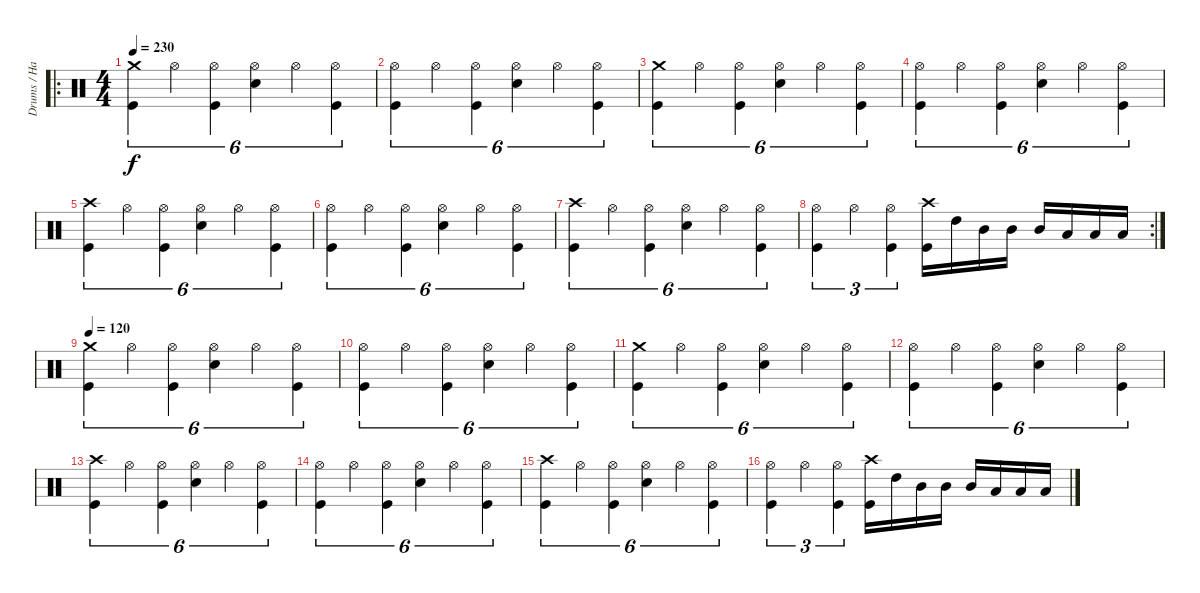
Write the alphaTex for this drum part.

\track ("Drums / Hammer of God" "Drums / Ha") {instrument percussion}
\staff {score}
\articulation defaults
\ro
\ts (4 4)
\tempo 230
\clef neutral
\ks c
("Kick (hit)" "Crash medium (hit)").4{tu (6 4) dy f} "Hi-Hat (open)".4{tu (6 4)} ("Kick (hit)" "Hi-Hat (open)").4{tu (6 4)} ("Snare (hit) 2" "Hi-Hat (open)").4{tu (6 4)} "Hi-Hat (open)".4{tu (6 4)} ("Kick (hit)" "Hi-Hat (open)").4{tu (6 4)} |
("Kick (hit)" "Hi-Hat (open)").4{tu (6 4)} "Hi-Hat (open)".4{tu (6 4)} ("Kick (hit)" "Hi-Hat (open)").4{tu (6 4)} ("Snare (hit) 2" "Hi-Hat (open)").4{tu (6 4)} "Hi-Hat (open)".4{tu (6 4)} ("Kick (hit)" "Hi-Hat (open)").4{tu (6 4)} |
("Kick (hit)" "Crash medium (hit)").4{tu (6 4)} "Hi-Hat (open)".4{tu (6 4)} ("Kick (hit)" "Hi-Hat (open)").4{tu (6 4)} ("Snare (hit) 2" "Hi-Hat (open)").4{tu (6 4)} "Hi-Hat (open)".4{tu (6 4)} ("Kick (hit)" "Hi-Hat (open)").4{tu (6 4)} |
("Kick (hit)" "Hi-Hat (open)").4{tu (6 4)} "Hi-Hat (open)".4{tu (6 4)} ("Kick (hit)" "Hi-Hat (open)").4{tu (6 4)} ("Snare (hit) 2" "Hi-Hat (open)").4{tu (6 4)} "Hi-Hat (open)".4{tu (6 4)} ("Kick (hit)" "Hi-Hat (open)").4{tu (6 4)} |
("Kick (hit)" "Crash high (hit)").4{tu (6 4)} "Hi-Hat (open)".4{tu (6 4)} ("Kick (hit)" "Hi-Hat (open)").4{tu (6 4)} ("Snare (hit) 2" "Hi-Hat (open)").4{tu (6 4)} "Hi-Hat (open)".4{tu (6 4)} ("Kick (hit)" "Hi-Hat (open)").4{tu (6 4)} |
("Kick (hit)" "Hi-Hat (open)").4{tu (6 4)} "Hi-Hat (open)".4{tu (6 4)} ("Kick (hit)" "Hi-Hat (open)").4{tu (6 4)} ("Snare (hit) 2" "Hi-Hat (open)").4{tu (6 4)} "Hi-Hat (open)".4{tu (6 4)} ("Kick (hit)" "Hi-Hat (open)").4{tu (6 4)} |
("Kick (hit)" "Crash high (hit)").4{tu (6 4)} "Hi-Hat (open)".4{tu (6 4)} ("Kick (hit)" "Hi-Hat (open)").4{tu (6 4)} ("Snare (hit) 2" "Hi-Hat (open)").4{tu (6 4)} "Hi-Hat (open)".4{tu (6 4)} ("Kick (hit)" "Hi-Hat (open)").4{tu (6 4)} |
\rc 2
("Kick (hit)" "Hi-Hat (open)").4{tu (3 2)} "Hi-Hat (open)".4{tu (3 2)} ("Kick (hit)" "Hi-Hat (open)").4{tu (3 2)} ("Kick (hit)" "Crash high (hit)").16 "High Tom (hit)".16 "Mid Tom (hit)".16 "Mid Tom (hit)".16 "Mid Tom (hit)".16 "Low Tom (hit)".16 "Low Tom (hit)".16 "Low Tom (hit)".16 |
\tempo 120
("Kick (hit)" "Crash medium (hit)").4{tu (6 4)} "Hi-Hat (open)".4{tu (6 4)} ("Kick (hit)" "Hi-Hat (open)").4{tu (6 4)} ("Snare (hit) 2" "Hi-Hat (open)").4{tu (6 4)} "Hi-Hat (open)".4{tu (6 4)} ("Kick (hit)" "Hi-Hat (open)").4{tu (6 4)} |
("Kick (hit)" "Hi-Hat (open)").4{tu (6 4)} "Hi-Hat (open)".4{tu (6 4)} ("Kick (hit)" "Hi-Hat (open)").4{tu (6 4)} ("Snare (hit) 2" "Hi-Hat (open)").4{tu (6 4)} "Hi-Hat (open)".4{tu (6 4)} ("Kick (hit)" "Hi-Hat (open)").4{tu (6 4)} |
("Kick (hit)" "Crash medium (hit)").4{tu (6 4)} "Hi-Hat (open)".4{tu (6 4)} ("Kick (hit)" "Hi-Hat (open)").4{tu (6 4)} ("Snare (hit) 2" "Hi-Hat (open)").4{tu (6 4)} "Hi-Hat (open)".4{tu (6 4)} ("Kick (hit)" "Hi-Hat (open)").4{tu (6 4)} |
("Kick (hit)" "Hi-Hat (open)").4{tu (6 4)} "Hi-Hat (open)".4{tu (6 4)} ("Kick (hit)" "Hi-Hat (open)").4{tu (6 4)} ("Snare (hit) 2" "Hi-Hat (open)").4{tu (6 4)} "Hi-Hat (open)".4{tu (6 4)} ("Kick (hit)" "Hi-Hat (open)").4{tu (6 4)} |
("Kick (hit)" "Crash high (hit)").4{tu (6 4)} "Hi-Hat (open)".4{tu (6 4)} ("Kick (hit)" "Hi-Hat (open)").4{tu (6 4)} ("Snare (hit) 2" "Hi-Hat (open)").4{tu (6 4)} "Hi-Hat (open)".4{tu (6 4)} ("Kick (hit)" "Hi-Hat (open)").4{tu (6 4)} |
("Kick (hit)" "Hi-Hat (open)").4{tu (6 4)} "Hi-Hat (open)".4{tu (6 4)} ("Kick (hit)" "Hi-Hat (open)").4{tu (6 4)} ("Snare (hit) 2" "Hi-Hat (open)").4{tu (6 4)} "Hi-Hat (open)".4{tu (6 4)} ("Kick (hit)" "Hi-Hat (open)").4{tu (6 4)} |
("Kick (hit)" "Crash high (hit)").4{tu (6 4)} "Hi-Hat (open)".4{tu (6 4)} ("Kick (hit)" "Hi-Hat (open)").4{tu (6 4)} ("Snare (hit) 2" "Hi-Hat (open)").4{tu (6 4)} "Hi-Hat (open)".4{tu (6 4)} ("Kick (hit)" "Hi-Hat (open)").4{tu (6 4)} |
("Kick (hit)" "Hi-Hat (open)").4{tu (3 2)} "Hi-Hat (open)".4{tu (3 2)} ("Kick (hit)" "Hi-Hat (open)").4{tu (3 2)} ("Kick (hit)" "Crash high (hit)").16 "High Tom (hit)".16 "Mid Tom (hit)".16 "Mid Tom (hit)".16 "Mid Tom (hit)".16 "Low Tom (hit)".16 "Low Tom (hit)".16 "Low Tom (hit)".16
